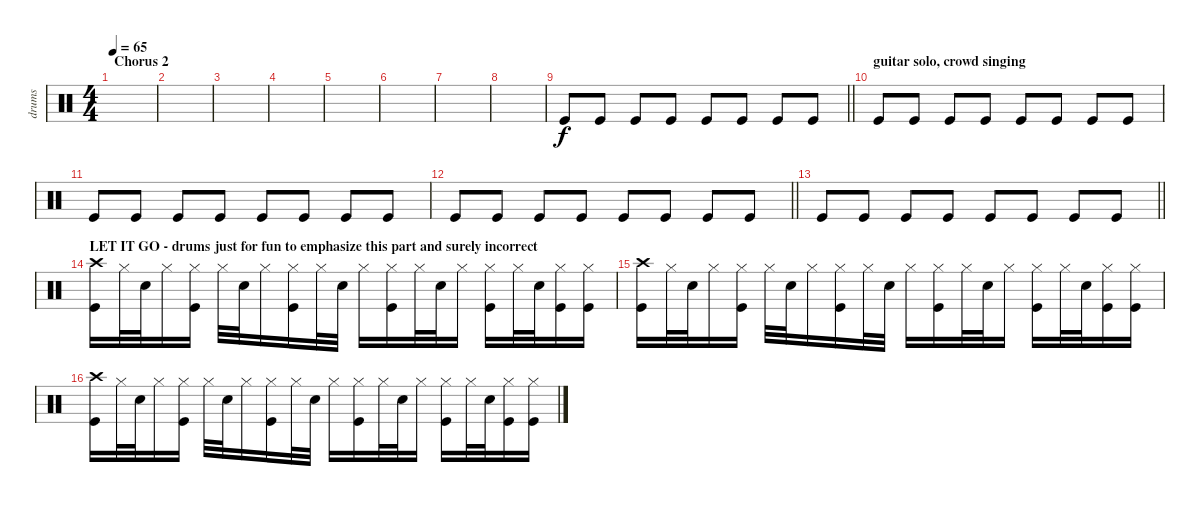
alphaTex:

\track ("drums" "drums") {instrument percussion}
\staff {score}
\articulation defaults
\ts (4 4)
\section ("" "Chorus 2")
\tempo 65
\clef neutral
\ks c
|
|
|
|
|
|
|
|
\barLineRight lightlight "Kick (hit)".8 "Kick (hit)".8 "Kick (hit)".8 "Kick (hit)".8 "Kick (hit)".8 "Kick (hit)".8 "Kick (hit)".8 "Kick (hit)".8
|
\section ("" "guitar solo, crowd singing")
"Kick (hit)".8 "Kick (hit)".8 "Kick (hit)".8 "Kick (hit)".8 "Kick (hit)".8 "Kick (hit)".8 "Kick (hit)".8 "Kick (hit)".8 |
"Kick (hit)".8 "Kick (hit)".8 "Kick (hit)".8 "Kick (hit)".8 "Kick (hit)".8 "Kick (hit)".8 "Kick (hit)".8 "Kick (hit)".8 |
\barLineRight lightlight "Kick (hit)".8 "Kick (hit)".8 "Kick (hit)".8 "Kick (hit)".8 "Kick (hit)".8 "Kick (hit)".8 "Kick (hit)".8 "Kick (hit)".8
|
\barLineRight lightlight "Kick (hit)".8 "Kick (hit)".8 "Kick (hit)".8 "Kick (hit)".8 "Kick (hit)".8 "Kick (hit)".8 "Kick (hit)".8 "Kick (hit)".8
|
\section ("" "LET IT GO - drums just for fun to emphasize this part and surely incorrect")
("Crash high (hit)" "Kick (hit)").16 "Hi-Hat (closed)".32 "Snare (hit) 2".32 "Hi-Hat (closed)".16 ("Hi-Hat (closed)" "Kick (hit)").16 "Hi-Hat (closed)".32 "Snare (hit) 2".32 "Hi-Hat (closed)".16 ("Hi-Hat (closed)" "Kick (hit)").16 "Hi-Hat (closed)".32 "Snare (hit) 2".32 "Hi-Hat (closed)".16 ("Hi-Hat (closed)" "Kick (hit)").16 "Hi-Hat (closed)".32 "Snare (hit) 2".32 "Hi-Hat (closed)".16 ("Hi-Hat (closed)" "Kick (hit)").16 "Hi-Hat (closed)".32 "Snare (hit) 2".32 ("Hi-Hat (closed)" "Kick (hit)").16 ("Hi-Hat (closed)" "Kick (hit)").16 |
("Crash high (hit)" "Kick (hit)").16 "Hi-Hat (closed)".32 "Snare (hit) 2".32 "Hi-Hat (closed)".16 ("Hi-Hat (closed)" "Kick (hit)").16 "Hi-Hat (closed)".32 "Snare (hit) 2".32 "Hi-Hat (closed)".16 ("Hi-Hat (closed)" "Kick (hit)").16 "Hi-Hat (closed)".32 "Snare (hit) 2".32 "Hi-Hat (closed)".16 ("Hi-Hat (closed)" "Kick (hit)").16 "Hi-Hat (closed)".32 "Snare (hit) 2".32 "Hi-Hat (closed)".16 ("Hi-Hat (closed)" "Kick (hit)").16 "Hi-Hat (closed)".32 "Snare (hit) 2".32 ("Hi-Hat (closed)" "Kick (hit)").16 ("Hi-Hat (closed)" "Kick (hit)").16 |
("Crash high (hit)" "Kick (hit)").16 "Hi-Hat (closed)".32 "Snare (hit) 2".32 "Hi-Hat (closed)".16 ("Hi-Hat (closed)" "Kick (hit)").16 "Hi-Hat (closed)".32 "Snare (hit) 2".32 "Hi-Hat (closed)".16 ("Hi-Hat (closed)" "Kick (hit)").16 "Hi-Hat (closed)".32 "Snare (hit) 2".32 "Hi-Hat (closed)".16 ("Hi-Hat (closed)" "Kick (hit)").16 "Hi-Hat (closed)".32 "Snare (hit) 2".32 "Hi-Hat (closed)".16 ("Hi-Hat (closed)" "Kick (hit)").16 "Hi-Hat (closed)".32 "Snare (hit) 2".32 ("Hi-Hat (closed)" "Kick (hit)").16 ("Hi-Hat (closed)" "Kick (hit)").16
